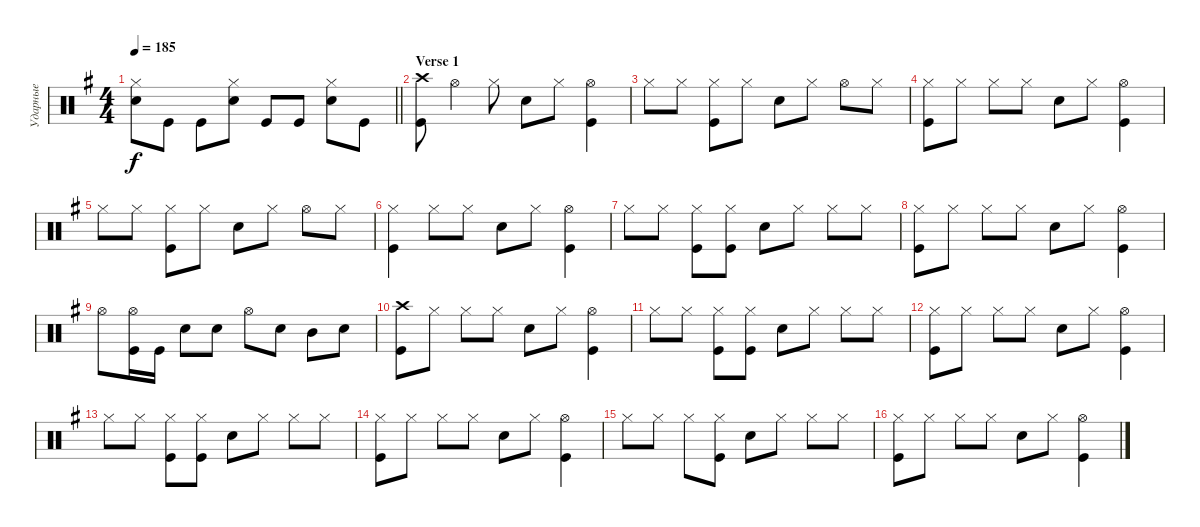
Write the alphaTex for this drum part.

\track ("Ударные" "Ударные") {instrument percussion}
\staff {score}
\articulation defaults
\ts (4 4)
\tempo 185
\clef neutral
\barLineRight lightlight
\ks eminor
("Snare (hit) 2" "Hi-Hat (closed)").8{dy f} "Kick (hit)".8 "Kick (hit)".8 ("Snare (hit) 2" "Hi-Hat (closed)").8 "Kick (hit)".8 "Kick (hit)".8 ("Snare (hit) 2" "Hi-Hat (closed)").8 "Kick (hit)".8 |
\section ("" "Verse 1")
("Kick (hit)" "Crash high (hit)").8 "Hi-Hat (open)".4 "Hi-Hat (closed)".8 "Snare (hit) 2".8 "Hi-Hat (closed)".8 ("Hi-Hat (open)" "Kick (hit)").4 |
"Hi-Hat (closed)".8 "Hi-Hat (closed)".8 ("Hi-Hat (closed)" "Kick (hit)").8 "Hi-Hat (closed)".8 "Snare (hit) 2".8 "Hi-Hat (closed)".8 "Hi-Hat (open)".8 "Hi-Hat (closed)".8 |
("Kick (hit)" "Hi-Hat (closed)").8 "Hi-Hat (closed)".8 "Hi-Hat (closed)".8 "Hi-Hat (closed)".8 "Snare (hit) 2".8 "Hi-Hat (closed)".8 ("Hi-Hat (open)" "Kick (hit)").4 |
"Hi-Hat (closed)".8 "Hi-Hat (closed)".8 ("Hi-Hat (closed)" "Kick (hit)").8 "Hi-Hat (closed)".8 "Snare (hit) 2".8 "Hi-Hat (closed)".8 "Hi-Hat (open)".8 "Hi-Hat (closed)".8 |
("Kick (hit)" "Hi-Hat (closed)").4 "Hi-Hat (closed)".8 "Hi-Hat (closed)".8 "Snare (hit) 2".8 "Hi-Hat (closed)".8 ("Hi-Hat (open)" "Kick (hit)").4 |
"Hi-Hat (closed)".8 "Hi-Hat (closed)".8 ("Hi-Hat (closed)" "Kick (hit)").8 ("Hi-Hat (closed)" "Kick (hit)").8 "Snare (hit) 2".8 "Hi-Hat (closed)".8 "Hi-Hat (closed)".8 "Hi-Hat (closed)".8 |
("Kick (hit)" "Hi-Hat (closed)").8 "Hi-Hat (closed)".8 "Hi-Hat (closed)".8 "Hi-Hat (closed)".8 "Snare (hit) 2".8 "Hi-Hat (closed)".8 ("Hi-Hat (open)" "Kick (hit)").4 |
"Hi-Hat (open)".8 ("Hi-Hat (open)" "Kick (hit)").16 "Kick (hit)".16 "Snare (hit) 2".8 "Snare (hit) 2".8 "Hi-Hat (open)".8 "Snare (hit) 2".8 "Mid Tom (hit)".8 "Snare (hit) 2".8 |
("Kick (hit)" "Crash high (hit)").8 "Hi-Hat (closed)".8 "Hi-Hat (closed)".8 "Hi-Hat (closed)".8 "Snare (hit) 2".8 "Hi-Hat (closed)".8 ("Hi-Hat (open)" "Kick (hit)").4 |
"Hi-Hat (closed)".8 "Hi-Hat (closed)".8 ("Hi-Hat (closed)" "Kick (hit)").8 ("Hi-Hat (closed)" "Kick (hit)").8 "Snare (hit) 2".8 "Hi-Hat (closed)".8 "Hi-Hat (closed)".8 "Hi-Hat (closed)".8 |
("Kick (hit)" "Hi-Hat (closed)").8 "Hi-Hat (closed)".8 "Hi-Hat (closed)".8 "Hi-Hat (closed)".8 "Snare (hit) 2".8 "Hi-Hat (closed)".8 ("Hi-Hat (open)" "Kick (hit)").4 |
"Hi-Hat (closed)".8 "Hi-Hat (closed)".8 ("Hi-Hat (closed)" "Kick (hit)").8 ("Hi-Hat (closed)" "Kick (hit)").8 "Snare (hit) 2".8 "Hi-Hat (closed)".8 "Hi-Hat (closed)".8 "Hi-Hat (closed)".8 |
("Kick (hit)" "Hi-Hat (closed)").8 "Hi-Hat (closed)".8 "Hi-Hat (closed)".8 "Hi-Hat (closed)".8 "Snare (hit) 2".8 "Hi-Hat (closed)".8 ("Hi-Hat (open)" "Kick (hit)").4 |
"Hi-Hat (closed)".8 "Hi-Hat (closed)".8 "Hi-Hat (closed)".8 ("Hi-Hat (closed)" "Kick (hit)").8 "Snare (hit) 2".8 "Hi-Hat (closed)".8 "Hi-Hat (closed)".8 "Hi-Hat (closed)".8 |
("Kick (hit)" "Hi-Hat (closed)").8 "Hi-Hat (closed)".8 "Hi-Hat (closed)".8 "Hi-Hat (closed)".8 "Snare (hit) 2".8 "Hi-Hat (closed)".8 ("Hi-Hat (open)" "Kick (hit)").4
